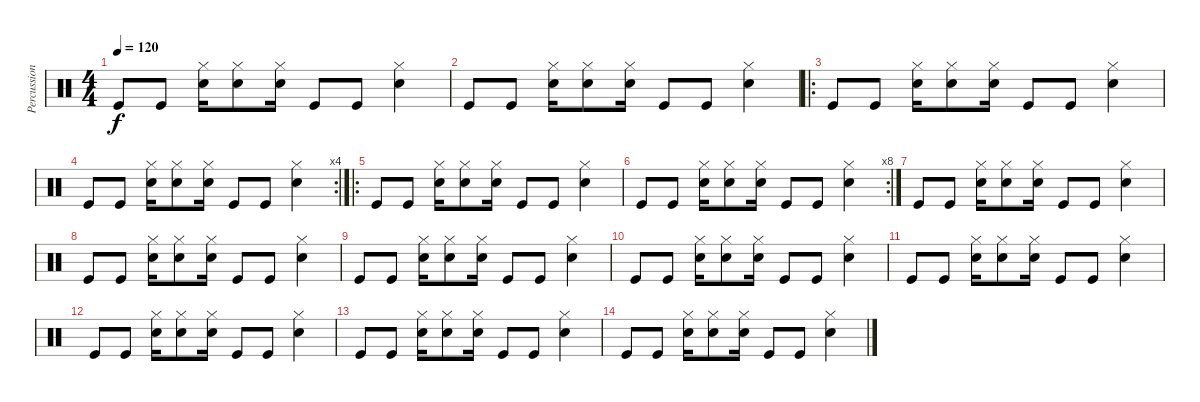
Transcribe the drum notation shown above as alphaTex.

\track ("Percussions" "Percussion") {instrument percussion}
\staff {score}
\articulation defaults
\ts (4 4)
\tempo 120
\clef neutral
\ks c "Kick (hit)".8{dy f} "Kick (hit)".8
("Electric Snare (hit)" "Hi-Hat (closed)").16 ("Electric Snare (hit)" "Hi-Hat (closed)").8 ("Electric Snare (hit)" "Hi-Hat (closed)").16 "Kick (hit)".8 "Kick (hit)".8 ("Electric Snare (hit)" "Hi-Hat (closed)").4 |
"Kick (hit)".8 "Kick (hit)".8 ("Electric Snare (hit)" "Hi-Hat (closed)").16 ("Electric Snare (hit)" "Hi-Hat (closed)").8 ("Electric Snare (hit)" "Hi-Hat (closed)").16 "Kick (hit)".8 "Kick (hit)".8 ("Electric Snare (hit)" "Hi-Hat (closed)").4 |
\ro "Kick (hit)".8 "Kick (hit)".8
("Electric Snare (hit)" "Hi-Hat (closed)").16 ("Electric Snare (hit)" "Hi-Hat (closed)").8 ("Electric Snare (hit)" "Hi-Hat (closed)").16 "Kick (hit)".8 "Kick (hit)".8 ("Electric Snare (hit)" "Hi-Hat (closed)").4 |
\rc 4 "Kick (hit)".8 "Kick (hit)".8
("Electric Snare (hit)" "Hi-Hat (closed)").16 ("Electric Snare (hit)" "Hi-Hat (closed)").8 ("Electric Snare (hit)" "Hi-Hat (closed)").16 "Kick (hit)".8 "Kick (hit)".8 ("Electric Snare (hit)" "Hi-Hat (closed)").4 |
\ro "Kick (hit)".8 "Kick (hit)".8
("Electric Snare (hit)" "Hi-Hat (closed)").16 ("Electric Snare (hit)" "Hi-Hat (closed)").8 ("Electric Snare (hit)" "Hi-Hat (closed)").16 "Kick (hit)".8 "Kick (hit)".8 ("Electric Snare (hit)" "Hi-Hat (closed)").4 |
\rc 8 "Kick (hit)".8 "Kick (hit)".8
("Electric Snare (hit)" "Hi-Hat (closed)").16 ("Electric Snare (hit)" "Hi-Hat (closed)").8 ("Electric Snare (hit)" "Hi-Hat (closed)").16 "Kick (hit)".8 "Kick (hit)".8 ("Electric Snare (hit)" "Hi-Hat (closed)").4 |
"Kick (hit)".8 "Kick (hit)".8 ("Electric Snare (hit)" "Hi-Hat (closed)").16 ("Electric Snare (hit)" "Hi-Hat (closed)").8 ("Electric Snare (hit)" "Hi-Hat (closed)").16 "Kick (hit)".8 "Kick (hit)".8 ("Electric Snare (hit)" "Hi-Hat (closed)").4 |
"Kick (hit)".8 "Kick (hit)".8 ("Electric Snare (hit)" "Hi-Hat (closed)").16 ("Electric Snare (hit)" "Hi-Hat (closed)").8 ("Electric Snare (hit)" "Hi-Hat (closed)").16 "Kick (hit)".8 "Kick (hit)".8 ("Electric Snare (hit)" "Hi-Hat (closed)").4 |
"Kick (hit)".8 "Kick (hit)".8 ("Electric Snare (hit)" "Hi-Hat (closed)").16 ("Electric Snare (hit)" "Hi-Hat (closed)").8 ("Electric Snare (hit)" "Hi-Hat (closed)").16 "Kick (hit)".8 "Kick (hit)".8 ("Electric Snare (hit)" "Hi-Hat (closed)").4 |
"Kick (hit)".8 "Kick (hit)".8 ("Electric Snare (hit)" "Hi-Hat (closed)").16 ("Electric Snare (hit)" "Hi-Hat (closed)").8 ("Electric Snare (hit)" "Hi-Hat (closed)").16 "Kick (hit)".8 "Kick (hit)".8 ("Electric Snare (hit)" "Hi-Hat (closed)").4 |
"Kick (hit)".8 "Kick (hit)".8 ("Electric Snare (hit)" "Hi-Hat (closed)").16 ("Electric Snare (hit)" "Hi-Hat (closed)").8 ("Electric Snare (hit)" "Hi-Hat (closed)").16 "Kick (hit)".8 "Kick (hit)".8 ("Electric Snare (hit)" "Hi-Hat (closed)").4 |
"Kick (hit)".8 "Kick (hit)".8 ("Electric Snare (hit)" "Hi-Hat (closed)").16 ("Electric Snare (hit)" "Hi-Hat (closed)").8 ("Electric Snare (hit)" "Hi-Hat (closed)").16 "Kick (hit)".8 "Kick (hit)".8 ("Electric Snare (hit)" "Hi-Hat (closed)").4 |
"Kick (hit)".8 "Kick (hit)".8 ("Electric Snare (hit)" "Hi-Hat (closed)").16 ("Electric Snare (hit)" "Hi-Hat (closed)").8 ("Electric Snare (hit)" "Hi-Hat (closed)").16 "Kick (hit)".8 "Kick (hit)".8 ("Electric Snare (hit)" "Hi-Hat (closed)").4 |
"Kick (hit)".8 "Kick (hit)".8 ("Electric Snare (hit)" "Hi-Hat (closed)").16 ("Electric Snare (hit)" "Hi-Hat (closed)").8 ("Electric Snare (hit)" "Hi-Hat (closed)").16 "Kick (hit)".8 "Kick (hit)".8 ("Electric Snare (hit)" "Hi-Hat (closed)").4
